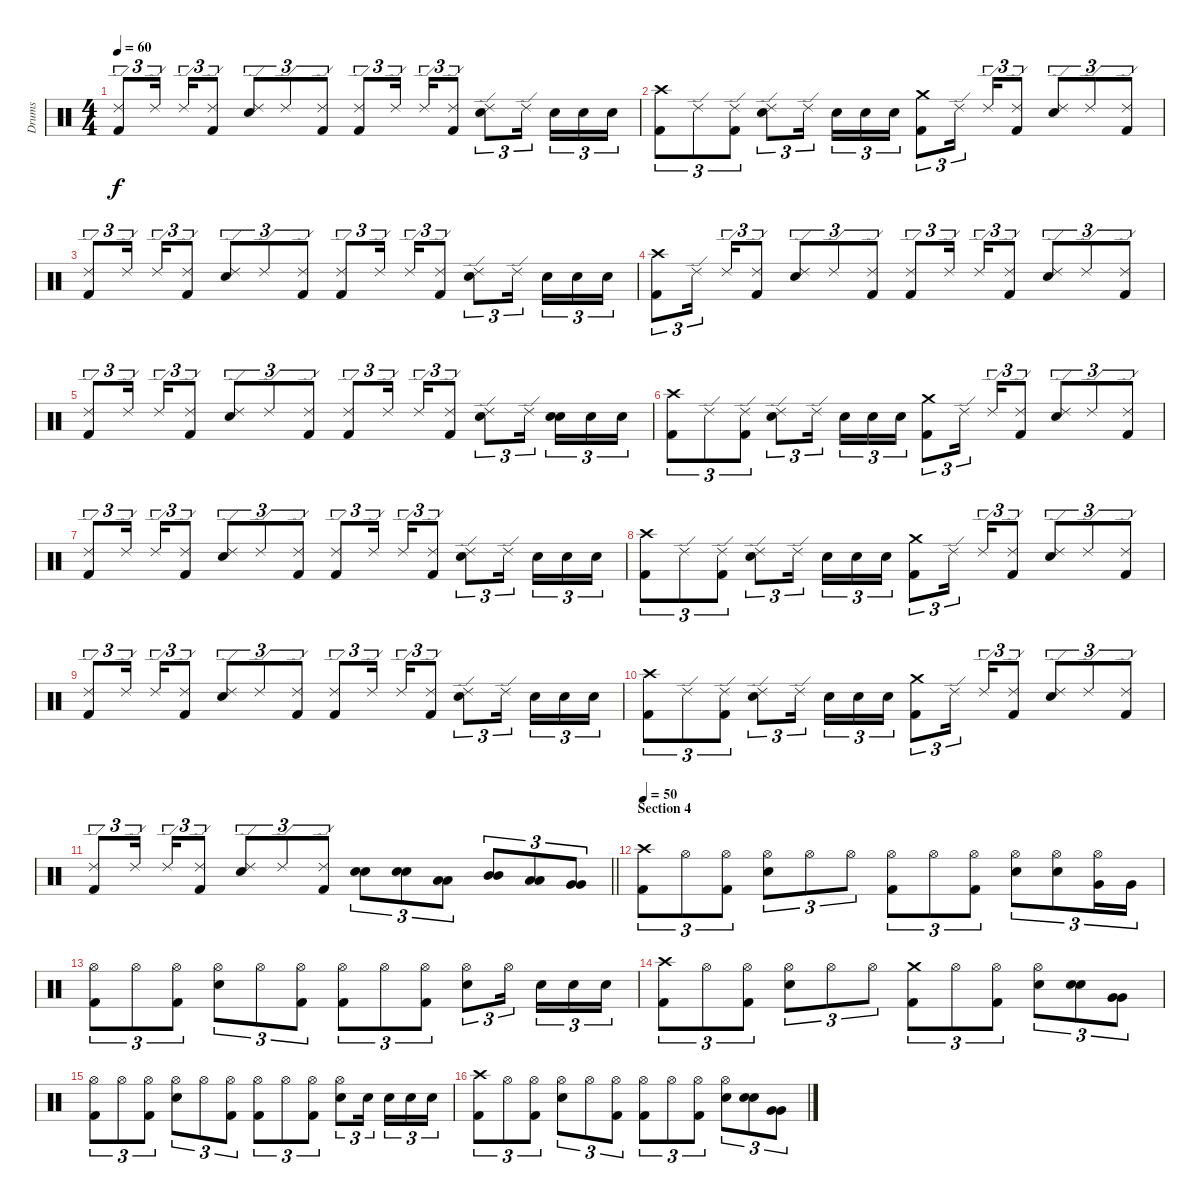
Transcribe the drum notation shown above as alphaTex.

\track ("Drums" "Drums") {instrument percussion}
\staff {score}
\articulation defaults
\ts (4 4)
\tempo 60
\clef neutral
\ks c
("Ride (edge) 2" "Kick (hit) 2").8{tu (3 2) dy f} "Ride (edge) 2".16{tu (3 2)} "Ride (edge) 2".16{tu (3 2)} ("Ride (edge) 2" "Kick (hit) 2").8{tu (3 2)} ("Ride (edge) 2" "Electric Snare (hit)").8{tu (3 2)} "Ride (edge) 2".8{tu (3 2)} ("Ride (edge) 2" "Kick (hit) 2").8{tu (3 2)} ("Ride (edge) 2" "Kick (hit) 2").8{tu (3 2)} "Ride (edge) 2".16{tu (3 2)} "Ride (edge) 2".16{tu (3 2)} ("Ride (edge) 2" "Kick (hit) 2").8{tu (3 2)} ("Ride (edge) 2" "Electric Snare (hit)").8{tu (3 2)} "Ride (edge) 2".16{tu (3 2)} "Electric Snare (hit)".16{tu (3 2)} "Electric Snare (hit)".16{tu (3 2)} "Electric Snare (hit)".16{tu (3 2)} |
("Crash high (hit)" "Kick (hit) 2").8{tu (3 2)} "Ride (edge) 2".8{tu (3 2)} ("Ride (edge) 2" "Kick (hit) 2").8{tu (3 2)} ("Ride (edge) 2" "Electric Snare (hit)").8{tu (3 2)} "Ride (edge) 2".16{tu (3 2)} "Electric Snare (hit)".16{tu (3 2)} "Electric Snare (hit)".16{tu (3 2)} "Electric Snare (hit)".16{tu (3 2)} ("Crash medium (hit)" "Kick (hit) 2").8{tu (3 2)} "Ride (edge) 2".16{tu (3 2)} "Ride (edge) 2".16{tu (3 2)} ("Ride (edge) 2" "Kick (hit) 2").8{tu (3 2)} ("Ride (edge) 2" "Electric Snare (hit)").8{tu (3 2)} "Ride (edge) 2".8{tu (3 2)} ("Ride (edge) 2" "Kick (hit) 2").8{tu (3 2)} |
("Ride (edge) 2" "Kick (hit) 2").8{tu (3 2)} "Ride (edge) 2".16{tu (3 2)} "Ride (edge) 2".16{tu (3 2)} ("Ride (edge) 2" "Kick (hit) 2").8{tu (3 2)} ("Ride (edge) 2" "Electric Snare (hit)").8{tu (3 2)} "Ride (edge) 2".8{tu (3 2)} ("Ride (edge) 2" "Kick (hit) 2").8{tu (3 2)} ("Ride (edge) 2" "Kick (hit) 2").8{tu (3 2)} "Ride (edge) 2".16{tu (3 2)} "Ride (edge) 2".16{tu (3 2)} ("Ride (edge) 2" "Kick (hit) 2").8{tu (3 2)} ("Ride (edge) 2" "Electric Snare (hit)").8{tu (3 2)} "Ride (edge) 2".16{tu (3 2)} "Electric Snare (hit)".16{tu (3 2)} "Electric Snare (hit)".16{tu (3 2)} "Electric Snare (hit)".16{tu (3 2)} |
("Crash high (hit)" "Kick (hit) 2").8{tu (3 2)} "Ride (edge) 2".16{tu (3 2)} "Ride (edge) 2".16{tu (3 2)} ("Ride (edge) 2" "Kick (hit) 2").8{tu (3 2)} ("Ride (edge) 2" "Electric Snare (hit)").8{tu (3 2)} "Ride (edge) 2".8{tu (3 2)} ("Ride (edge) 2" "Kick (hit) 2").8{tu (3 2)} ("Ride (edge) 2" "Kick (hit) 2").8{tu (3 2)} "Ride (edge) 2".16{tu (3 2)} "Ride (edge) 2".16{tu (3 2)} ("Ride (edge) 2" "Kick (hit) 2").8{tu (3 2)} ("Ride (edge) 2" "Electric Snare (hit)").8{tu (3 2)} "Ride (edge) 2".8{tu (3 2)} ("Ride (edge) 2" "Kick (hit) 2").8{tu (3 2)} |
("Ride (edge) 2" "Kick (hit) 2").8{tu (3 2)} "Ride (edge) 2".16{tu (3 2)} "Ride (edge) 2".16{tu (3 2)} ("Ride (edge) 2" "Kick (hit) 2").8{tu (3 2)} ("Ride (edge) 2" "Electric Snare (hit)").8{tu (3 2)} "Ride (edge) 2".8{tu (3 2)} ("Ride (edge) 2" "Kick (hit) 2").8{tu (3 2)} ("Ride (edge) 2" "Kick (hit) 2").8{tu (3 2)} "Ride (edge) 2".16{tu (3 2)} "Ride (edge) 2".16{tu (3 2)} ("Ride (edge) 2" "Kick (hit) 2").8{tu (3 2)} ("Ride (edge) 2" "Electric Snare (hit)").8{tu (3 2)} "Ride (edge) 2".16{tu (3 2)} ("Electric Snare (hit)" "Electric Snare (hit)").16{tu (3 2) bu 60} "Electric Snare (hit)".16{tu (3 2)} "Electric Snare (hit)".16{tu (3 2)} |
("Crash high (hit)" "Kick (hit) 2").8{tu (3 2)} "Ride (edge) 2".8{tu (3 2)} ("Ride (edge) 2" "Kick (hit) 2").8{tu (3 2)} ("Ride (edge) 2" "Electric Snare (hit)").8{tu (3 2)} "Ride (edge) 2".16{tu (3 2)} "Electric Snare (hit)".16{tu (3 2)} "Electric Snare (hit)".16{tu (3 2)} "Electric Snare (hit)".16{tu (3 2)} ("Crash medium (hit)" "Kick (hit) 2").8{tu (3 2)} "Ride (edge) 2".16{tu (3 2)} "Ride (edge) 2".16{tu (3 2)} ("Ride (edge) 2" "Kick (hit) 2").8{tu (3 2)} ("Ride (edge) 2" "Electric Snare (hit)").8{tu (3 2)} "Ride (edge) 2".8{tu (3 2)} ("Ride (edge) 2" "Kick (hit) 2").8{tu (3 2)} |
("Ride (edge) 2" "Kick (hit) 2").8{tu (3 2)} "Ride (edge) 2".16{tu (3 2)} "Ride (edge) 2".16{tu (3 2)} ("Ride (edge) 2" "Kick (hit) 2").8{tu (3 2)} ("Ride (edge) 2" "Electric Snare (hit)").8{tu (3 2)} "Ride (edge) 2".8{tu (3 2)} ("Ride (edge) 2" "Kick (hit) 2").8{tu (3 2)} ("Ride (edge) 2" "Kick (hit) 2").8{tu (3 2)} "Ride (edge) 2".16{tu (3 2)} "Ride (edge) 2".16{tu (3 2)} ("Ride (edge) 2" "Kick (hit) 2").8{tu (3 2)} ("Ride (edge) 2" "Electric Snare (hit)").8{tu (3 2)} "Ride (edge) 2".16{tu (3 2)} "Electric Snare (hit)".16{tu (3 2)} "Electric Snare (hit)".16{tu (3 2)} "Electric Snare (hit)".16{tu (3 2)} |
("Crash high (hit)" "Kick (hit) 2").8{tu (3 2)} "Ride (edge) 2".8{tu (3 2)} ("Ride (edge) 2" "Kick (hit) 2").8{tu (3 2)} ("Ride (edge) 2" "Electric Snare (hit)").8{tu (3 2)} "Ride (edge) 2".16{tu (3 2)} "Electric Snare (hit)".16{tu (3 2)} "Electric Snare (hit)".16{tu (3 2)} "Electric Snare (hit)".16{tu (3 2)} ("Crash medium (hit)" "Kick (hit) 2").8{tu (3 2)} "Ride (edge) 2".16{tu (3 2)} "Ride (edge) 2".16{tu (3 2)} ("Ride (edge) 2" "Kick (hit) 2").8{tu (3 2)} ("Ride (edge) 2" "Electric Snare (hit)").8{tu (3 2)} "Ride (edge) 2".8{tu (3 2)} ("Ride (edge) 2" "Kick (hit) 2").8{tu (3 2)} |
("Ride (edge) 2" "Kick (hit) 2").8{tu (3 2)} "Ride (edge) 2".16{tu (3 2)} "Ride (edge) 2".16{tu (3 2)} ("Ride (edge) 2" "Kick (hit) 2").8{tu (3 2)} ("Ride (edge) 2" "Electric Snare (hit)").8{tu (3 2)} "Ride (edge) 2".8{tu (3 2)} ("Ride (edge) 2" "Kick (hit) 2").8{tu (3 2)} ("Ride (edge) 2" "Kick (hit) 2").8{tu (3 2)} "Ride (edge) 2".16{tu (3 2)} "Ride (edge) 2".16{tu (3 2)} ("Ride (edge) 2" "Kick (hit) 2").8{tu (3 2)} ("Ride (edge) 2" "Electric Snare (hit)").8{tu (3 2)} "Ride (edge) 2".16{tu (3 2)} "Electric Snare (hit)".16{tu (3 2)} "Electric Snare (hit)".16{tu (3 2)} "Electric Snare (hit)".16{tu (3 2)} |
("Crash high (hit)" "Kick (hit) 2").8{tu (3 2)} "Ride (edge) 2".8{tu (3 2)} ("Ride (edge) 2" "Kick (hit) 2").8{tu (3 2)} ("Ride (edge) 2" "Electric Snare (hit)").8{tu (3 2)} "Ride (edge) 2".16{tu (3 2)} "Electric Snare (hit)".16{tu (3 2)} "Electric Snare (hit)".16{tu (3 2)} "Electric Snare (hit)".16{tu (3 2)} ("Crash medium (hit)" "Kick (hit) 2").8{tu (3 2)} "Ride (edge) 2".16{tu (3 2)} "Ride (edge) 2".16{tu (3 2)} ("Ride (edge) 2" "Kick (hit) 2").8{tu (3 2)} ("Ride (edge) 2" "Electric Snare (hit)").8{tu (3 2)} "Ride (edge) 2".8{tu (3 2)} ("Ride (edge) 2" "Kick (hit) 2").8{tu (3 2)} |
\barLineRight lightlight
("Ride (edge) 2" "Kick (hit) 2").8{tu (3 2)} "Ride (edge) 2".16{tu (3 2)} "Ride (edge) 2".16{tu (3 2)} ("Ride (edge) 2" "Kick (hit) 2").8{tu (3 2)} ("Ride (edge) 2" "Electric Snare (hit)").8{tu (3 2)} "Ride (edge) 2".8{tu (3 2)} ("Ride (edge) 2" "Kick (hit) 2").8{tu (3 2)} ("Electric Snare (hit)" "Electric Snare (hit)").8{tu (3 2) bu 60} ("Electric Snare (hit)" "Electric Snare (hit)").8{tu (3 2) bu 60} ("Low Tom (hit)" "Low Tom (hit)").8{tu (3 2) bu 60} ("Mid Tom (hit)" "Mid Tom (hit)").8{tu (3 2) bu 60} ("Low Tom (hit)" "Low Tom (hit)").8{tu (3 2) bu 60} ("Very Low Tom (hit)" "Very Low Tom (hit)").8{tu (3 2) bu 60} |
\section ("" "Section 4")
\tempo 50
("Crash high (hit)" "Kick (hit) 2").8{tu (3 2)} "Hi-Hat (open)".8{tu (3 2)} ("Hi-Hat (open)" "Kick (hit) 2").8{tu (3 2)} ("Hi-Hat (open)" "Electric Snare (hit)").8{tu (3 2)} "Hi-Hat (open)".8{tu (3 2)} "Hi-Hat (open)".8{tu (3 2)} ("Hi-Hat (open)" "Kick (hit) 2").8{tu (3 2)} "Hi-Hat (open)".8{tu (3 2)} ("Hi-Hat (open)" "Kick (hit) 2").8{tu (3 2)} ("Hi-Hat (open)" "Electric Snare (hit)").8{tu (3 2)} ("Hi-Hat (open)" "Electric Snare (hit)").8{tu (3 2)} ("Hi-Hat (open)" "Very Low Tom (hit)").16{tu (3 2)} "Very Low Tom (hit)".16{tu (3 2)} |
("Hi-Hat (open)" "Kick (hit) 2").8{tu (3 2)} "Hi-Hat (open)".8{tu (3 2)} ("Hi-Hat (open)" "Kick (hit) 2").8{tu (3 2)} ("Hi-Hat (open)" "Electric Snare (hit)").8{tu (3 2)} "Hi-Hat (open)".8{tu (3 2)} ("Hi-Hat (open)" "Kick (hit) 2").8{tu (3 2)} ("Hi-Hat (open)" "Kick (hit) 2").8{tu (3 2)} "Hi-Hat (open)".8{tu (3 2)} ("Hi-Hat (open)" "Kick (hit) 2").8{tu (3 2)} ("Hi-Hat (open)" "Electric Snare (hit)").8{tu (3 2)} "Hi-Hat (open)".16{tu (3 2)} "Electric Snare (hit)".16{tu (3 2)} "Electric Snare (hit)".16{tu (3 2)} "Electric Snare (hit)".16{tu (3 2)} |
("Crash high (hit)" "Kick (hit) 2").8{tu (3 2)} "Hi-Hat (open)".8{tu (3 2)} ("Hi-Hat (open)" "Kick (hit) 2").8{tu (3 2)} ("Hi-Hat (open)" "Electric Snare (hit)").8{tu (3 2)} "Hi-Hat (open)".8{tu (3 2)} "Hi-Hat (open)".8{tu (3 2)} ("Crash medium (hit)" "Kick (hit) 2").8{tu (3 2)} "Hi-Hat (open)".8{tu (3 2)} ("Hi-Hat (open)" "Kick (hit) 2").8{tu (3 2)} ("Hi-Hat (open)" "Electric Snare (hit)").8{tu (3 2)} ("Electric Snare (hit)" "Electric Snare (hit)").8{tu (3 2) bu 60} ("Very Low Tom (hit)" "Very Low Tom (hit)").8{tu (3 2) bu 60} |
("Hi-Hat (open)" "Kick (hit) 2").8{tu (3 2)} "Hi-Hat (open)".8{tu (3 2)} ("Hi-Hat (open)" "Kick (hit) 2").8{tu (3 2)} ("Hi-Hat (open)" "Electric Snare (hit)").8{tu (3 2)} "Hi-Hat (open)".8{tu (3 2)} ("Hi-Hat (open)" "Kick (hit) 2").8{tu (3 2)} ("Hi-Hat (open)" "Kick (hit) 2").8{tu (3 2)} "Hi-Hat (open)".8{tu (3 2)} ("Hi-Hat (open)" "Kick (hit) 2").8{tu (3 2)} ("Hi-Hat (open)" "Electric Snare (hit)").8{tu (3 2)} "Electric Snare (hit)".16{tu (3 2)} "Electric Snare (hit)".16{tu (3 2)} "Electric Snare (hit)".16{tu (3 2)} "Electric Snare (hit)".16{tu (3 2)} |
("Crash high (hit)" "Kick (hit) 2").8{tu (3 2)} "Hi-Hat (open)".8{tu (3 2)} ("Hi-Hat (open)" "Kick (hit) 2").8{tu (3 2)} ("Hi-Hat (open)" "Electric Snare (hit)").8{tu (3 2)} "Hi-Hat (open)".8{tu (3 2)} ("Hi-Hat (open)" "Kick (hit) 2").8{tu (3 2)} ("Hi-Hat (open)" "Kick (hit) 2").8{tu (3 2)} "Hi-Hat (open)".8{tu (3 2)} ("Hi-Hat (open)" "Kick (hit) 2").8{tu (3 2)} ("Hi-Hat (open)" "Electric Snare (hit)").8{tu (3 2)} ("Electric Snare (hit)" "Electric Snare (hit)").8{tu (3 2) bu 60} ("Very Low Tom (hit)" "Very Low Tom (hit)").8{tu (3 2) bu 60}
